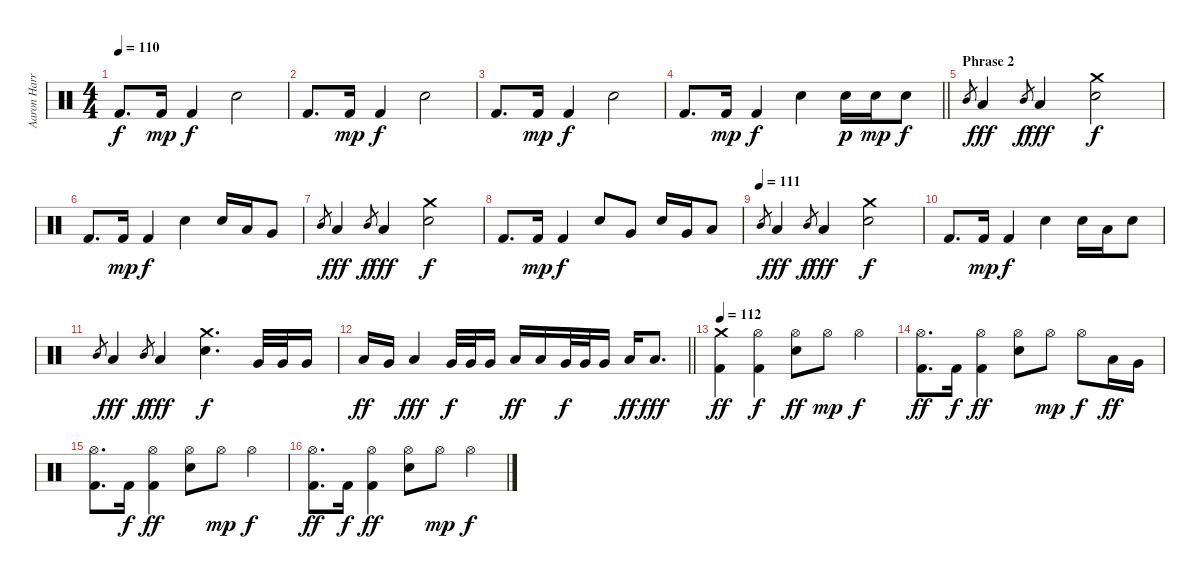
\track ("Aaron Harris" "Aaron Harr") {instrument percussion}
\staff {score}
\articulation defaults
\ts (4 4)
\tempo 110
\clef neutral
\ks c "Kick (hit) 2".8{d dy f} "Kick (hit) 2".16{dy mp} "Kick (hit) 2".4{dy f} "Electric Snare (hit)".2
|
"Kick (hit) 2".8{d} "Kick (hit) 2".16{dy mp} "Kick (hit) 2".4{dy f} "Electric Snare (hit)".2 |
"Kick (hit) 2".8{d} "Kick (hit) 2".16{dy mp} "Kick (hit) 2".4{dy f} "Electric Snare (hit)".2 |
\barLineRight lightlight "Kick (hit) 2".8{d} "Kick (hit) 2".16{dy mp} "Kick (hit) 2".4{dy f} "Electric Snare (hit)".4 "Electric Snare (hit)".16{dy p} "Electric Snare (hit)".16{dy mp} "Electric Snare (hit)".8{dy f}
|
\section ("" "Phrase 2")
"Mid Tom (hit)".8{gr} "Low Tom (hit)".4{dy fff} "Mid Tom (hit)".8{gr dy f} "Low Tom (hit)".4{dy fff} ("Crash medium (hit)" "Electric Snare (hit)").2{dy f} |
"Kick (hit) 2".8{d} "Kick (hit) 2".16{dy mp} "Kick (hit) 2".4{dy f} "Electric Snare (hit)".4 "Electric Snare (hit)".16 "Low Tom (hit)".16 "Very Low Tom (hit)".8 |
"Mid Tom (hit)".8{gr} "Low Tom (hit)".4{dy fff} "Mid Tom (hit)".8{gr dy f} "Low Tom (hit)".4{dy fff} ("Crash medium (hit)" "Electric Snare (hit)").2{dy f} |
"Kick (hit) 2".8{d} "Kick (hit) 2".16{dy mp} "Kick (hit) 2".4{dy f} "Electric Snare (hit)".8 "Very Low Tom (hit)".8 "Electric Snare (hit)".16 "Very Low Tom (hit)".16 "Low Floor Tom (hit)".8 |
\tempo (111)
"Mid Tom (hit)".8{gr} "Low Tom (hit)".4{dy fff} "Mid Tom (hit)".8{gr dy f} "Low Tom (hit)".4{dy fff} ("Crash medium (hit)" "Electric Snare (hit)").2{dy f} |
"Kick (hit) 2".8{d} "Kick (hit) 2".16{dy mp} "Kick (hit) 2".4{dy f} "Electric Snare (hit)".4 "Electric Snare (hit)".16 "Low Tom (hit)".16 "Electric Snare (hit)".8 |
"Mid Tom (hit)".8{gr} "Low Tom (hit)".4{dy fff} "Mid Tom (hit)".8{gr dy f} "Low Tom (hit)".4{dy fff} ("Crash medium (hit)" "Electric Snare (hit)").4{d dy f} "Very Low Tom (hit)".32 "Very Low Tom (hit)".32 "Very Low Tom (hit)".16 |
\barLineRight lightlight "Low Tom (hit)".16{dy ff} "Very Low Tom (hit)".16 "Low Tom (hit)".4{dy fff} "Very Low Tom (hit)".32{dy f} "Very Low Tom (hit)".32 "Very Low Tom (hit)".16 "Low Tom (hit)".16{dy ff} "Low Tom (hit)".16 "Very Low Tom (hit)".32{dy f} "Very Low Tom (hit)".32 "Very Low Tom (hit)".16 "Low Tom (hit)".16{dy ff} "Low Tom (hit)".8{d dy fff}
|
\tempo 112
("Crash medium (hit)" "Kick (hit) 2").4{dy ff} ("Hi-Hat (open)" "Kick (hit) 2").4{dy f} ("Hi-Hat (open)" "Electric Snare (hit)").8{dy ff} "Hi-Hat (open)".8{dy mp} "Hi-Hat (open)".4{dy f} |
("Hi-Hat (open)" "Kick (hit) 2").8{d dy ff} "Kick (hit) 2".16{dy f} ("Hi-Hat (open)" "Kick (hit) 2").4{dy ff} ("Hi-Hat (open)" "Electric Snare (hit)").8 "Hi-Hat (open)".8{dy mp} "Hi-Hat (open)".8{dy f} "Low Tom (hit)".16{dy ff} "Very Low Tom (hit)".16 |
("Hi-Hat (open)" "Kick (hit) 2").8{d} "Kick (hit) 2".16{dy f} ("Hi-Hat (open)" "Kick (hit) 2").4{dy ff} ("Hi-Hat (open)" "Electric Snare (hit)").8 "Hi-Hat (open)".8{dy mp} "Hi-Hat (open)".4{dy f} |
("Hi-Hat (open)" "Kick (hit) 2").8{d dy ff} "Kick (hit) 2".16{dy f} ("Hi-Hat (open)" "Kick (hit) 2").4{dy ff} ("Hi-Hat (open)" "Electric Snare (hit)").8 "Hi-Hat (open)".8{dy mp} "Hi-Hat (open)".4{dy f}
